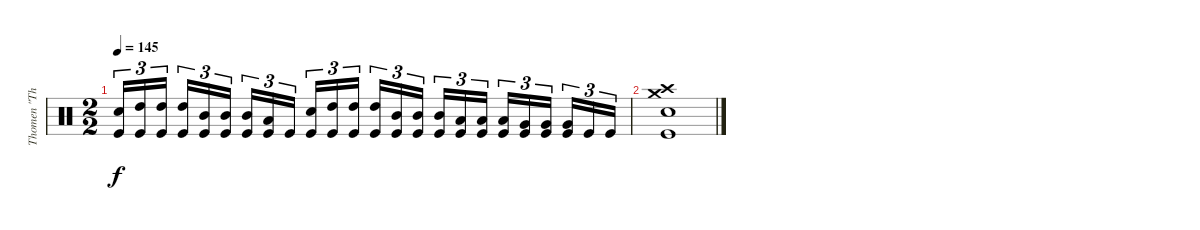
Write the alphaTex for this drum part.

\track ("Thomen \"The Omen\" Stauch" "Thomen \"Th") {instrument percussion}
\staff {score}
\articulation defaults
\ts (2 2)
\tempo 145
\clef neutral
\ks c
("Snare (hit) 2" "Kick (hit)").16{tu (3 2) dy f} ("High Tom (hit)" "Kick (hit)").16{tu (3 2)} ("High Tom (hit)" "Kick (hit)").16{tu (3 2)} ("High Tom (hit)" "Kick (hit)").16{tu (3 2)} ("Mid Tom (hit)" "Kick (hit)").16{tu (3 2)} ("Mid Tom (hit)" "Kick (hit)").16{tu (3 2)} ("Mid Tom (hit)" "Kick (hit)").16{tu (3 2)} ("Low Tom (hit)" "Kick (hit)").16{tu (3 2)} "Kick (hit)".16{tu (3 2)} ("Snare (hit) 2" "Kick (hit)").16{tu (3 2)} ("High Tom (hit)" "Kick (hit)").16{tu (3 2)} ("High Tom (hit)" "Kick (hit)").16{tu (3 2)} ("High Tom (hit)" "Kick (hit)").16{tu (3 2)} ("Mid Tom (hit)" "Kick (hit)").16{tu (3 2)} ("Mid Tom (hit)" "Kick (hit)").16{tu (3 2)} ("Mid Tom (hit)" "Kick (hit)").16{tu (3 2)} ("Low Tom (hit)" "Kick (hit)").16{tu (3 2)} ("Low Tom (hit)" "Kick (hit)").16{tu (3 2)} ("Low Tom (hit)" "Kick (hit)").16{tu (3 2)} ("Very Low Tom (hit)" "Kick (hit)").16{tu (3 2)} ("Very Low Tom (hit)" "Kick (hit)").16{tu (3 2)} ("Very Low Tom (hit)" "Kick (hit)").16{tu (3 2)} "Kick (hit)".16{tu (3 2)} "Kick (hit)".16{tu (3 2)} |
("Crash medium (hit)" "Crash high (hit)" "Snare (hit) 2" "Kick (hit)").1
